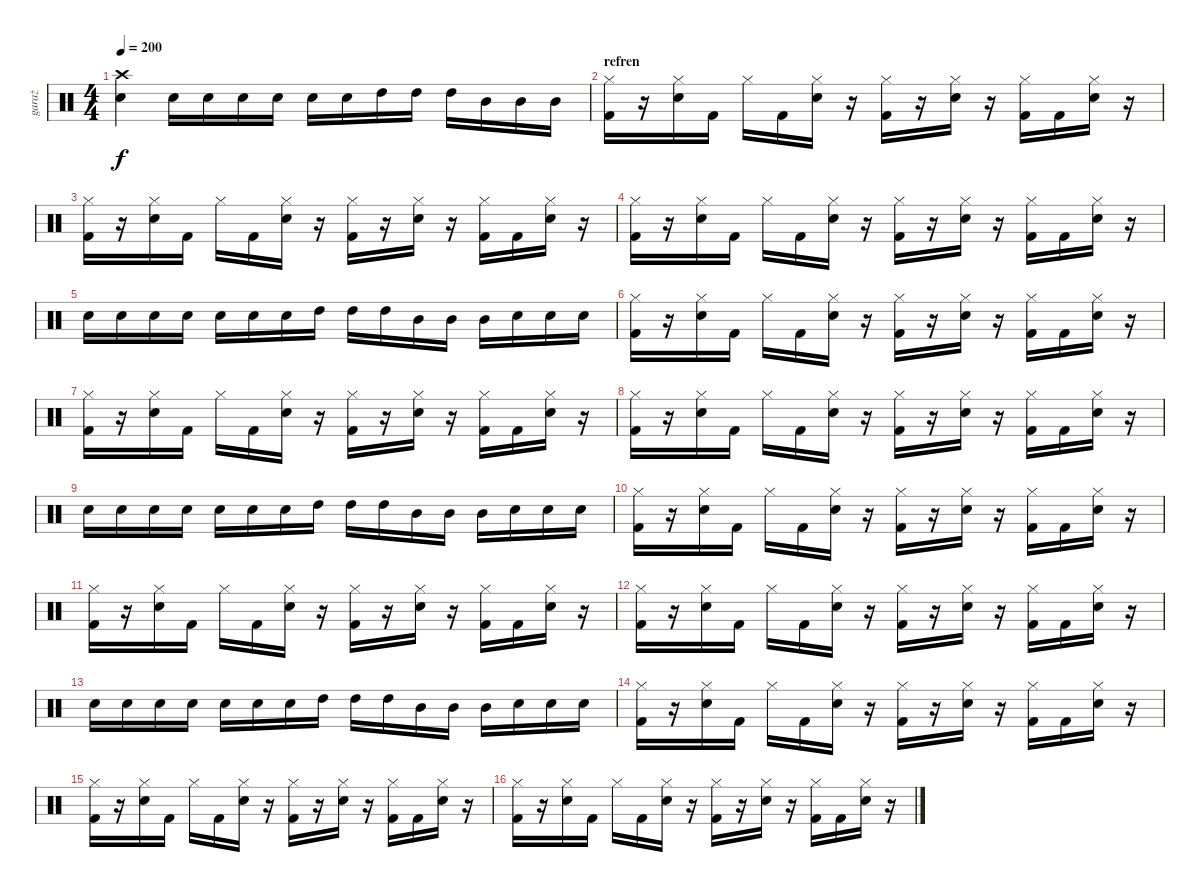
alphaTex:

\track ("garaż" "garaż") {instrument percussion}
\staff {score}
\articulation defaults
\ts (4 4)
\tempo 200
\clef neutral
\ks c
("Crash high (hit)" "Snare (hit) 2").4{dy f} "Snare (hit) 2".16 "Snare (hit) 2".16 "Snare (hit) 2".16 "Snare (hit) 2".16 "Snare (hit) 2".16 "Snare (hit) 2".16 "High Tom (hit)".16 "High Tom (hit)".16 "High Tom (hit)".16 "Mid Tom (hit)".16 "Mid Tom (hit)".16 "Mid Tom (hit)".16 |
\section ("" "refren")
("Hi-Hat (closed)" "Kick (hit) 2").16 r.16 ("Hi-Hat (closed)" "Snare (hit) 2").16 "Kick (hit) 2".16 "Hi-Hat (closed)".16 "Kick (hit) 2".16 ("Hi-Hat (closed)" "Snare (hit) 2").16 r.16 ("Hi-Hat (closed)" "Kick (hit) 2").16 r.16 ("Hi-Hat (closed)" "Snare (hit) 2").16 r.16 ("Hi-Hat (closed)" "Kick (hit) 2").16 "Kick (hit) 2".16 ("Hi-Hat (closed)" "Snare (hit) 2").16 r.16 |
("Hi-Hat (closed)" "Kick (hit) 2").16 r.16 ("Hi-Hat (closed)" "Snare (hit) 2").16 "Kick (hit) 2".16 "Hi-Hat (closed)".16 "Kick (hit) 2".16 ("Hi-Hat (closed)" "Snare (hit) 2").16 r.16 ("Hi-Hat (closed)" "Kick (hit) 2").16 r.16 ("Hi-Hat (closed)" "Snare (hit) 2").16 r.16 ("Hi-Hat (closed)" "Kick (hit) 2").16 "Kick (hit) 2".16 ("Hi-Hat (closed)" "Snare (hit) 2").16 r.16 |
("Hi-Hat (closed)" "Kick (hit) 2").16 r.16 ("Hi-Hat (closed)" "Snare (hit) 2").16 "Kick (hit) 2".16 "Hi-Hat (closed)".16 "Kick (hit) 2".16 ("Hi-Hat (closed)" "Snare (hit) 2").16 r.16 ("Hi-Hat (closed)" "Kick (hit) 2").16 r.16 ("Hi-Hat (closed)" "Snare (hit) 2").16 r.16 ("Hi-Hat (closed)" "Kick (hit) 2").16 "Kick (hit) 2".16 ("Hi-Hat (closed)" "Snare (hit) 2").16 r.16 |
"Snare (hit) 2".16 "Snare (hit) 2".16 "Snare (hit) 2".16 "Snare (hit) 2".16 "Snare (hit) 2".16 "Snare (hit) 2".16 "Snare (hit) 2".16 "High Tom (hit)".16 "High Tom (hit)".16 "High Tom (hit)".16 "Mid Tom (hit)".16 "Mid Tom (hit)".16 "Mid Tom (hit)".16 "Snare (hit) 2".16 "Snare (hit) 2".16 "Snare (hit) 2".16 |
("Hi-Hat (closed)" "Kick (hit) 2").16 r.16 ("Hi-Hat (closed)" "Snare (hit) 2").16 "Kick (hit) 2".16 "Hi-Hat (closed)".16 "Kick (hit) 2".16 ("Hi-Hat (closed)" "Snare (hit) 2").16 r.16 ("Hi-Hat (closed)" "Kick (hit) 2").16 r.16 ("Hi-Hat (closed)" "Snare (hit) 2").16 r.16 ("Hi-Hat (closed)" "Kick (hit) 2").16 "Kick (hit) 2".16 ("Hi-Hat (closed)" "Snare (hit) 2").16 r.16 |
("Hi-Hat (closed)" "Kick (hit) 2").16 r.16 ("Hi-Hat (closed)" "Snare (hit) 2").16 "Kick (hit) 2".16 "Hi-Hat (closed)".16 "Kick (hit) 2".16 ("Hi-Hat (closed)" "Snare (hit) 2").16 r.16 ("Hi-Hat (closed)" "Kick (hit) 2").16 r.16 ("Hi-Hat (closed)" "Snare (hit) 2").16 r.16 ("Hi-Hat (closed)" "Kick (hit) 2").16 "Kick (hit) 2".16 ("Hi-Hat (closed)" "Snare (hit) 2").16 r.16 |
("Hi-Hat (closed)" "Kick (hit) 2").16 r.16 ("Hi-Hat (closed)" "Snare (hit) 2").16 "Kick (hit) 2".16 "Hi-Hat (closed)".16 "Kick (hit) 2".16 ("Hi-Hat (closed)" "Snare (hit) 2").16 r.16 ("Hi-Hat (closed)" "Kick (hit) 2").16 r.16 ("Hi-Hat (closed)" "Snare (hit) 2").16 r.16 ("Hi-Hat (closed)" "Kick (hit) 2").16 "Kick (hit) 2".16 ("Hi-Hat (closed)" "Snare (hit) 2").16 r.16 |
"Snare (hit) 2".16 "Snare (hit) 2".16 "Snare (hit) 2".16 "Snare (hit) 2".16 "Snare (hit) 2".16 "Snare (hit) 2".16 "Snare (hit) 2".16 "High Tom (hit)".16 "High Tom (hit)".16 "High Tom (hit)".16 "Mid Tom (hit)".16 "Mid Tom (hit)".16 "Mid Tom (hit)".16 "Snare (hit) 2".16 "Snare (hit) 2".16 "Snare (hit) 2".16 |
("Hi-Hat (closed)" "Kick (hit) 2").16 r.16 ("Hi-Hat (closed)" "Snare (hit) 2").16 "Kick (hit) 2".16 "Hi-Hat (closed)".16 "Kick (hit) 2".16 ("Hi-Hat (closed)" "Snare (hit) 2").16 r.16 ("Hi-Hat (closed)" "Kick (hit) 2").16 r.16 ("Hi-Hat (closed)" "Snare (hit) 2").16 r.16 ("Hi-Hat (closed)" "Kick (hit) 2").16 "Kick (hit) 2".16 ("Hi-Hat (closed)" "Snare (hit) 2").16 r.16 |
("Hi-Hat (closed)" "Kick (hit) 2").16 r.16 ("Hi-Hat (closed)" "Snare (hit) 2").16 "Kick (hit) 2".16 "Hi-Hat (closed)".16 "Kick (hit) 2".16 ("Hi-Hat (closed)" "Snare (hit) 2").16 r.16 ("Hi-Hat (closed)" "Kick (hit) 2").16 r.16 ("Hi-Hat (closed)" "Snare (hit) 2").16 r.16 ("Hi-Hat (closed)" "Kick (hit) 2").16 "Kick (hit) 2".16 ("Hi-Hat (closed)" "Snare (hit) 2").16 r.16 |
("Hi-Hat (closed)" "Kick (hit) 2").16 r.16 ("Hi-Hat (closed)" "Snare (hit) 2").16 "Kick (hit) 2".16 "Hi-Hat (closed)".16 "Kick (hit) 2".16 ("Hi-Hat (closed)" "Snare (hit) 2").16 r.16 ("Hi-Hat (closed)" "Kick (hit) 2").16 r.16 ("Hi-Hat (closed)" "Snare (hit) 2").16 r.16 ("Hi-Hat (closed)" "Kick (hit) 2").16 "Kick (hit) 2".16 ("Hi-Hat (closed)" "Snare (hit) 2").16 r.16 |
"Snare (hit) 2".16 "Snare (hit) 2".16 "Snare (hit) 2".16 "Snare (hit) 2".16 "Snare (hit) 2".16 "Snare (hit) 2".16 "Snare (hit) 2".16 "High Tom (hit)".16 "High Tom (hit)".16 "High Tom (hit)".16 "Mid Tom (hit)".16 "Mid Tom (hit)".16 "Mid Tom (hit)".16 "Snare (hit) 2".16 "Snare (hit) 2".16 "Snare (hit) 2".16 |
("Hi-Hat (closed)" "Kick (hit) 2").16 r.16 ("Hi-Hat (closed)" "Snare (hit) 2").16 "Kick (hit) 2".16 "Hi-Hat (closed)".16 "Kick (hit) 2".16 ("Hi-Hat (closed)" "Snare (hit) 2").16 r.16 ("Hi-Hat (closed)" "Kick (hit) 2").16 r.16 ("Hi-Hat (closed)" "Snare (hit) 2").16 r.16 ("Hi-Hat (closed)" "Kick (hit) 2").16 "Kick (hit) 2".16 ("Hi-Hat (closed)" "Snare (hit) 2").16 r.16 |
("Hi-Hat (closed)" "Kick (hit) 2").16 r.16 ("Hi-Hat (closed)" "Snare (hit) 2").16 "Kick (hit) 2".16 "Hi-Hat (closed)".16 "Kick (hit) 2".16 ("Hi-Hat (closed)" "Snare (hit) 2").16 r.16 ("Hi-Hat (closed)" "Kick (hit) 2").16 r.16 ("Hi-Hat (closed)" "Snare (hit) 2").16 r.16 ("Hi-Hat (closed)" "Kick (hit) 2").16 "Kick (hit) 2".16 ("Hi-Hat (closed)" "Snare (hit) 2").16 r.16 |
("Hi-Hat (closed)" "Kick (hit) 2").16 r.16 ("Hi-Hat (closed)" "Snare (hit) 2").16 "Kick (hit) 2".16 "Hi-Hat (closed)".16 "Kick (hit) 2".16 ("Hi-Hat (closed)" "Snare (hit) 2").16 r.16 ("Hi-Hat (closed)" "Kick (hit) 2").16 r.16 ("Hi-Hat (closed)" "Snare (hit) 2").16 r.16 ("Hi-Hat (closed)" "Kick (hit) 2").16 "Kick (hit) 2".16 ("Hi-Hat (closed)" "Snare (hit) 2").16 r.16
